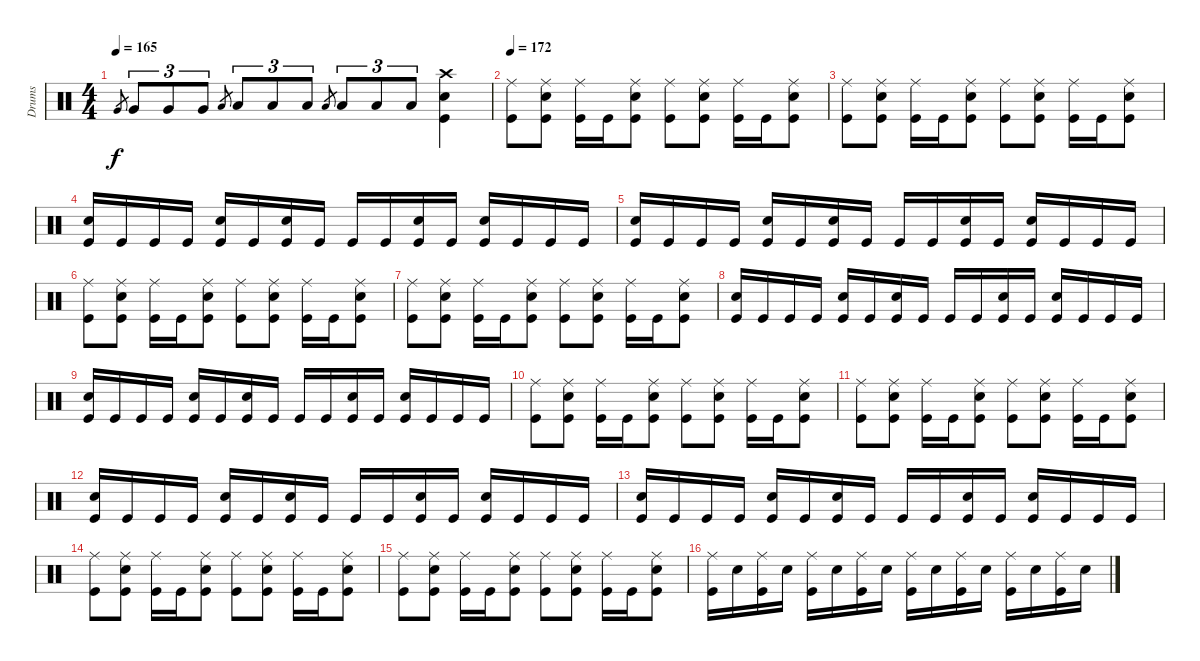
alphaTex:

\track ("Drums" "Drums") {instrument percussion}
\staff {score}
\articulation defaults
\ts (4 4)
\tempo 165
\clef neutral
\ks c "Very Low Tom (hit)".8{gr dy f} "Very Low Tom (hit)".8{tu (3 2)} "Very Low Tom (hit)".8{tu (3 2)} "Very Low Tom (hit)".8{tu (3 2)} "Low Floor Tom (hit)".8{gr} "Low Floor Tom (hit)".8{tu (3 2)} "Low Floor Tom (hit)".8{tu (3 2)} "Low Floor Tom (hit)".8{tu (3 2)} "Low Floor Tom (hit)".8{gr} "Low Floor Tom (hit)".8{tu (3 2)} "Low Floor Tom (hit)".8{tu (3 2)} "Low Floor Tom (hit)".8{tu (3 2)}
("Kick (hit)" "Snare (hit) 2" "Crash high (hit)").4 |
\tempo 172
("Kick (hit)" "Ride (middle)").8 ("Kick (hit)" "Snare (hit) 2" "Ride (middle)").8 ("Kick (hit)" "Ride (middle)").16 "Kick (hit)".16 ("Kick (hit)" "Snare (hit) 2" "Ride (middle)").8 ("Kick (hit)" "Ride (middle)").8 ("Kick (hit)" "Snare (hit) 2" "Ride (middle)").8 ("Kick (hit)" "Ride (middle)").16 "Kick (hit)".16 ("Kick (hit)" "Snare (hit) 2" "Ride (middle)").8 |
("Kick (hit)" "Ride (middle)").8 ("Kick (hit)" "Snare (hit) 2" "Ride (middle)").8 ("Kick (hit)" "Ride (middle)").16 "Kick (hit)".16 ("Kick (hit)" "Snare (hit) 2" "Ride (middle)").8 ("Kick (hit)" "Ride (middle)").8 ("Kick (hit)" "Snare (hit) 2" "Ride (middle)").8 ("Kick (hit)" "Ride (middle)").16 "Kick (hit)".16 ("Kick (hit)" "Snare (hit) 2" "Ride (middle)").8 |
("Kick (hit)" "Snare (hit) 2").16 "Kick (hit)".16 "Kick (hit)".16 "Kick (hit)".16 ("Kick (hit)" "Snare (hit) 2").16 "Kick (hit)".16 ("Kick (hit)" "Snare (hit) 2").16 "Kick (hit)".16 "Kick (hit)".16 "Kick (hit)".16 ("Snare (hit) 2" "Kick (hit)").16 "Kick (hit)".16 ("Kick (hit)" "Snare (hit) 2").16 "Kick (hit)".16 "Kick (hit)".16 "Kick (hit)".16 |
("Kick (hit)" "Snare (hit) 2").16 "Kick (hit)".16 "Kick (hit)".16 "Kick (hit)".16 ("Kick (hit)" "Snare (hit) 2").16 "Kick (hit)".16 ("Kick (hit)" "Snare (hit) 2").16 "Kick (hit)".16 "Kick (hit)".16 "Kick (hit)".16 ("Snare (hit) 2" "Kick (hit)").16 "Kick (hit)".16 ("Kick (hit)" "Snare (hit) 2").16 "Kick (hit)".16 "Kick (hit)".16 "Kick (hit)".16 |
("Kick (hit)" "Ride (middle)").8 ("Kick (hit)" "Snare (hit) 2" "Ride (middle)").8 ("Kick (hit)" "Ride (middle)").16 "Kick (hit)".16 ("Kick (hit)" "Snare (hit) 2" "Ride (middle)").8 ("Kick (hit)" "Ride (middle)").8 ("Kick (hit)" "Snare (hit) 2" "Ride (middle)").8 ("Kick (hit)" "Ride (middle)").16 "Kick (hit)".16 ("Kick (hit)" "Snare (hit) 2" "Ride (middle)").8 |
("Kick (hit)" "Ride (middle)").8 ("Kick (hit)" "Snare (hit) 2" "Ride (middle)").8 ("Kick (hit)" "Ride (middle)").16 "Kick (hit)".16 ("Kick (hit)" "Snare (hit) 2" "Ride (middle)").8 ("Kick (hit)" "Ride (middle)").8 ("Kick (hit)" "Snare (hit) 2" "Ride (middle)").8 ("Kick (hit)" "Ride (middle)").16 "Kick (hit)".16 ("Kick (hit)" "Snare (hit) 2" "Ride (middle)").8 |
("Kick (hit)" "Snare (hit) 2").16 "Kick (hit)".16 "Kick (hit)".16 "Kick (hit)".16 ("Kick (hit)" "Snare (hit) 2").16 "Kick (hit)".16 ("Kick (hit)" "Snare (hit) 2").16 "Kick (hit)".16 "Kick (hit)".16 "Kick (hit)".16 ("Snare (hit) 2" "Kick (hit)").16 "Kick (hit)".16 ("Kick (hit)" "Snare (hit) 2").16 "Kick (hit)".16 "Kick (hit)".16 "Kick (hit)".16 |
("Kick (hit)" "Snare (hit) 2").16 "Kick (hit)".16 "Kick (hit)".16 "Kick (hit)".16 ("Kick (hit)" "Snare (hit) 2").16 "Kick (hit)".16 ("Kick (hit)" "Snare (hit) 2").16 "Kick (hit)".16 "Kick (hit)".16 "Kick (hit)".16 ("Snare (hit) 2" "Kick (hit)").16 "Kick (hit)".16 ("Kick (hit)" "Snare (hit) 2").16 "Kick (hit)".16 "Kick (hit)".16 "Kick (hit)".16 |
("Kick (hit)" "Ride (middle)").8 ("Kick (hit)" "Snare (hit) 2" "Ride (middle)").8 ("Kick (hit)" "Ride (middle)").16 "Kick (hit)".16 ("Kick (hit)" "Snare (hit) 2" "Ride (middle)").8 ("Kick (hit)" "Ride (middle)").8 ("Kick (hit)" "Snare (hit) 2" "Ride (middle)").8 ("Kick (hit)" "Ride (middle)").16 "Kick (hit)".16 ("Kick (hit)" "Snare (hit) 2" "Ride (middle)").8 |
("Kick (hit)" "Ride (middle)").8 ("Kick (hit)" "Snare (hit) 2" "Ride (middle)").8 ("Kick (hit)" "Ride (middle)").16 "Kick (hit)".16 ("Kick (hit)" "Snare (hit) 2" "Ride (middle)").8 ("Kick (hit)" "Ride (middle)").8 ("Kick (hit)" "Snare (hit) 2" "Ride (middle)").8 ("Kick (hit)" "Ride (middle)").16 "Kick (hit)".16 ("Kick (hit)" "Snare (hit) 2" "Ride (middle)").8 |
("Kick (hit)" "Snare (hit) 2").16 "Kick (hit)".16 "Kick (hit)".16 "Kick (hit)".16 ("Kick (hit)" "Snare (hit) 2").16 "Kick (hit)".16 ("Kick (hit)" "Snare (hit) 2").16 "Kick (hit)".16 "Kick (hit)".16 "Kick (hit)".16 ("Snare (hit) 2" "Kick (hit)").16 "Kick (hit)".16 ("Kick (hit)" "Snare (hit) 2").16 "Kick (hit)".16 "Kick (hit)".16 "Kick (hit)".16 |
("Kick (hit)" "Snare (hit) 2").16 "Kick (hit)".16 "Kick (hit)".16 "Kick (hit)".16 ("Kick (hit)" "Snare (hit) 2").16 "Kick (hit)".16 ("Kick (hit)" "Snare (hit) 2").16 "Kick (hit)".16 "Kick (hit)".16 "Kick (hit)".16 ("Snare (hit) 2" "Kick (hit)").16 "Kick (hit)".16 ("Kick (hit)" "Snare (hit) 2").16 "Kick (hit)".16 "Kick (hit)".16 "Kick (hit)".16 |
("Kick (hit)" "Ride (middle)").8 ("Kick (hit)" "Snare (hit) 2" "Ride (middle)").8 ("Kick (hit)" "Ride (middle)").16 "Kick (hit)".16 ("Kick (hit)" "Snare (hit) 2" "Ride (middle)").8 ("Kick (hit)" "Ride (middle)").8 ("Kick (hit)" "Snare (hit) 2" "Ride (middle)").8 ("Kick (hit)" "Ride (middle)").16 "Kick (hit)".16 ("Kick (hit)" "Snare (hit) 2" "Ride (middle)").8 |
("Kick (hit)" "Ride (middle)").8 ("Kick (hit)" "Snare (hit) 2" "Ride (middle)").8 ("Kick (hit)" "Ride (middle)").16 "Kick (hit)".16 ("Kick (hit)" "Snare (hit) 2" "Ride (middle)").8 ("Kick (hit)" "Ride (middle)").8 ("Kick (hit)" "Snare (hit) 2" "Ride (middle)").8 ("Kick (hit)" "Ride (middle)").16 "Kick (hit)".16 ("Kick (hit)" "Snare (hit) 2" "Ride (middle)").8 |
("Kick (hit)" "Ride (middle)").16 "Snare (hit) 2".16 ("Kick (hit)" "Ride (middle)").16 "Snare (hit) 2".16 ("Kick (hit)" "Ride (middle)").16 "Snare (hit) 2".16 ("Kick (hit)" "Ride (middle)").16 "Snare (hit) 2".16 ("Kick (hit)" "Ride (middle)").16 "Snare (hit) 2".16 ("Kick (hit)" "Ride (middle)").16 "Snare (hit) 2".16 ("Kick (hit)" "Ride (middle)").16 "Snare (hit) 2".16 ("Kick (hit)" "Ride (middle)").16 "Snare (hit) 2".16
